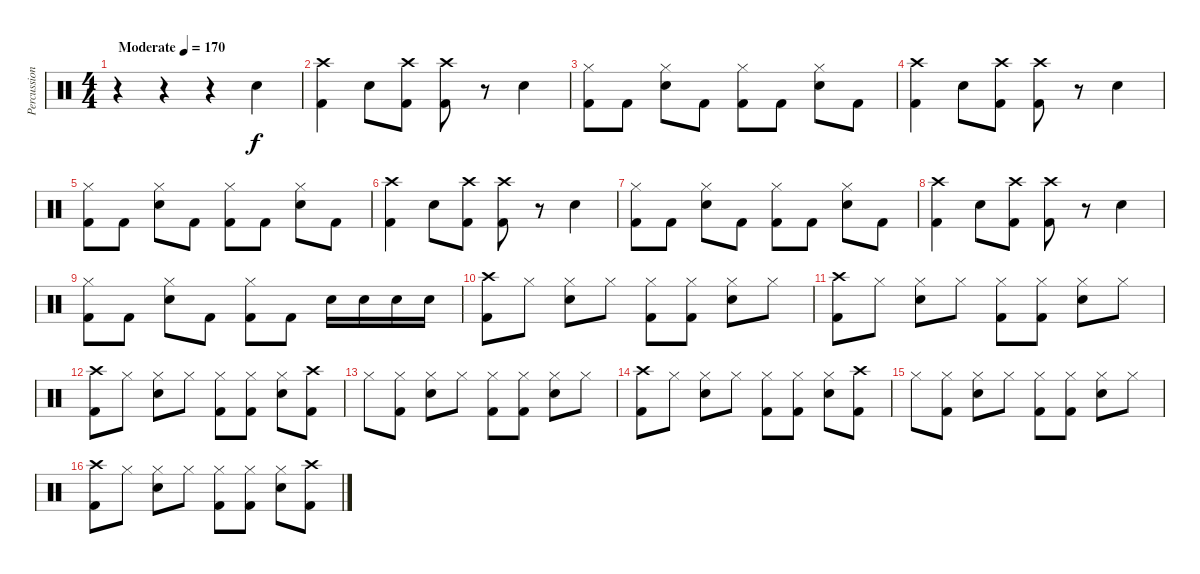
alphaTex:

\track ("Percussion" "Percussion") {instrument percussion}
\staff {score}
\articulation defaults
\ts (4 4)
\tempo (170 "Moderate")
\clef neutral
\ks c
r.4{dy f} r.4 r.4 "Snare (hit) 2".4 |
("Crash high (hit)" "Kick (hit) 2").4 "Snare (hit) 2".8 ("Crash high (hit)" "Kick (hit) 2").8 ("Crash high (hit)" "Kick (hit) 2").8 r.8 "Snare (hit) 2".4 |
("Hi-Hat (closed)" "Kick (hit) 2").8 "Kick (hit) 2".8 ("Hi-Hat (closed)" "Snare (hit) 2").8 "Kick (hit) 2".8 ("Hi-Hat (closed)" "Kick (hit) 2").8 "Kick (hit) 2".8 ("Hi-Hat (closed)" "Snare (hit) 2").8 "Kick (hit) 2".8 |
("Crash high (hit)" "Kick (hit) 2").4 "Snare (hit) 2".8 ("Crash high (hit)" "Kick (hit) 2").8 ("Crash high (hit)" "Kick (hit) 2").8 r.8 "Snare (hit) 2".4 |
("Hi-Hat (closed)" "Kick (hit) 2").8 "Kick (hit) 2".8 ("Hi-Hat (closed)" "Snare (hit) 2").8 "Kick (hit) 2".8 ("Hi-Hat (closed)" "Kick (hit) 2").8 "Kick (hit) 2".8 ("Hi-Hat (closed)" "Snare (hit) 2").8 "Kick (hit) 2".8 |
("Crash high (hit)" "Kick (hit) 2").4 "Snare (hit) 2".8 ("Crash high (hit)" "Kick (hit) 2").8 ("Crash high (hit)" "Kick (hit) 2").8 r.8 "Snare (hit) 2".4 |
("Hi-Hat (closed)" "Kick (hit) 2").8 "Kick (hit) 2".8 ("Hi-Hat (closed)" "Snare (hit) 2").8 "Kick (hit) 2".8 ("Hi-Hat (closed)" "Kick (hit) 2").8 "Kick (hit) 2".8 ("Hi-Hat (closed)" "Snare (hit) 2").8 "Kick (hit) 2".8 |
("Crash high (hit)" "Kick (hit) 2").4 "Snare (hit) 2".8 ("Crash high (hit)" "Kick (hit) 2").8 ("Crash high (hit)" "Kick (hit) 2").8 r.8 "Snare (hit) 2".4 |
("Hi-Hat (closed)" "Kick (hit) 2").8 "Kick (hit) 2".8 ("Hi-Hat (closed)" "Snare (hit) 2").8 "Kick (hit) 2".8 ("Hi-Hat (closed)" "Kick (hit) 2").8 "Kick (hit) 2".8 "Snare (hit) 2".16 "Snare (hit) 2".16 "Snare (hit) 2".16 "Snare (hit) 2".16 |
("Crash high (hit)" "Kick (hit) 2").8 "Hi-Hat (closed)".8 ("Hi-Hat (closed)" "Snare (hit) 2").8 "Hi-Hat (closed)".8 ("Hi-Hat (closed)" "Kick (hit) 2").8 ("Hi-Hat (closed)" "Kick (hit) 2").8 ("Hi-Hat (closed)" "Snare (hit) 2").8 "Hi-Hat (closed)".8 |
("Crash high (hit)" "Kick (hit) 2").8 "Hi-Hat (closed)".8 ("Hi-Hat (closed)" "Snare (hit) 2").8 "Hi-Hat (closed)".8 ("Hi-Hat (closed)" "Kick (hit) 2").8 ("Hi-Hat (closed)" "Kick (hit) 2").8 ("Hi-Hat (closed)" "Snare (hit) 2").8 "Hi-Hat (closed)".8 |
("Crash high (hit)" "Kick (hit) 2").8 "Hi-Hat (closed)".8 ("Hi-Hat (closed)" "Snare (hit) 2").8 "Hi-Hat (closed)".8 ("Hi-Hat (closed)" "Kick (hit) 2").8 ("Hi-Hat (closed)" "Kick (hit) 2").8 ("Hi-Hat (closed)" "Snare (hit) 2").8 ("Crash high (hit)" "Kick (hit) 2").8 |
"Hi-Hat (closed)".8 ("Hi-Hat (closed)" "Kick (hit) 2").8 ("Hi-Hat (closed)" "Snare (hit) 2").8 "Hi-Hat (closed)".8 ("Hi-Hat (closed)" "Kick (hit) 2").8 ("Hi-Hat (closed)" "Kick (hit) 2").8 ("Hi-Hat (closed)" "Snare (hit) 2").8 "Hi-Hat (closed)".8 |
("Crash high (hit)" "Kick (hit) 2").8 "Hi-Hat (closed)".8 ("Hi-Hat (closed)" "Snare (hit) 2").8 "Hi-Hat (closed)".8 ("Hi-Hat (closed)" "Kick (hit) 2").8 ("Hi-Hat (closed)" "Kick (hit) 2").8 ("Hi-Hat (closed)" "Snare (hit) 2").8 ("Crash high (hit)" "Kick (hit) 2").8 |
"Hi-Hat (closed)".8 ("Hi-Hat (closed)" "Kick (hit) 2").8 ("Hi-Hat (closed)" "Snare (hit) 2").8 "Hi-Hat (closed)".8 ("Hi-Hat (closed)" "Kick (hit) 2").8 ("Hi-Hat (closed)" "Kick (hit) 2").8 ("Hi-Hat (closed)" "Snare (hit) 2").8 "Hi-Hat (closed)".8 |
("Crash high (hit)" "Kick (hit) 2").8 "Hi-Hat (closed)".8 ("Hi-Hat (closed)" "Snare (hit) 2").8 "Hi-Hat (closed)".8 ("Hi-Hat (closed)" "Kick (hit) 2").8 ("Hi-Hat (closed)" "Kick (hit) 2").8 ("Hi-Hat (closed)" "Snare (hit) 2").8 ("Crash high (hit)" "Kick (hit) 2").8
